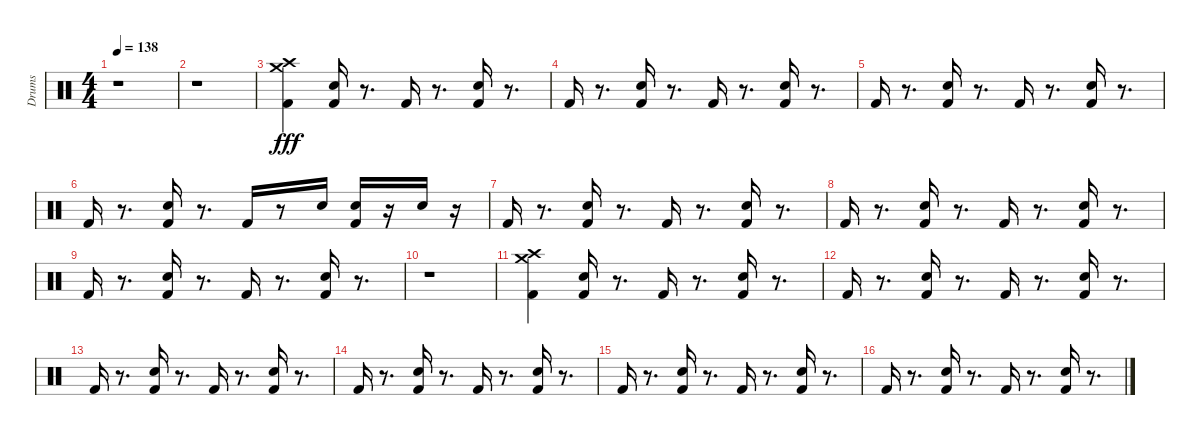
\track ("Drums" "Drums") {instrument percussion}
\staff {score}
\articulation defaults
\ts (4 4)
\tempo 138
\clef neutral
\ks c
r.1{dy fff} |
r.1 |
("Kick (hit) 2" "Crash medium (hit)" "Crash high (hit)").4 ("Kick (hit) 2" "Hand Clap (hit)").16 r.8{d} "Kick (hit) 2".16 r.8{d} ("Kick (hit) 2" "Hand Clap (hit)").16 r.8{d} |
"Kick (hit) 2".16 r.8{d} ("Kick (hit) 2" "Hand Clap (hit)").16 r.8{d} "Kick (hit) 2".16 r.8{d} ("Kick (hit) 2" "Hand Clap (hit)").16 r.8{d} |
"Kick (hit) 2".16 r.8{d} ("Kick (hit) 2" "Hand Clap (hit)").16 r.8{d} "Kick (hit) 2".16 r.8{d} ("Kick (hit) 2" "Hand Clap (hit)").16 r.8{d} |
"Kick (hit) 2".16 r.8{d} ("Kick (hit) 2" "Hand Clap (hit)").16 r.8{d} "Kick (hit) 2".16 r.8 "Hand Clap (hit)".16 ("Kick (hit) 2" "Hand Clap (hit)").16 r.16 "Hand Clap (hit)".16 r.16 |
"Kick (hit) 2".16 r.8{d} ("Kick (hit) 2" "Hand Clap (hit)").16 r.8{d} "Kick (hit) 2".16 r.8{d} ("Kick (hit) 2" "Hand Clap (hit)").16 r.8{d} |
"Kick (hit) 2".16 r.8{d} ("Kick (hit) 2" "Hand Clap (hit)").16 r.8{d} "Kick (hit) 2".16 r.8{d} ("Kick (hit) 2" "Hand Clap (hit)").16 r.8{d} |
"Kick (hit) 2".16 r.8{d} ("Kick (hit) 2" "Hand Clap (hit)").16 r.8{d} "Kick (hit) 2".16 r.8{d} ("Kick (hit) 2" "Hand Clap (hit)").16 r.8{d} |
r.1 |
("Kick (hit) 2" "Crash medium (hit)" "Crash high (hit)").4 ("Kick (hit) 2" "Hand Clap (hit)").16 r.8{d} "Kick (hit) 2".16 r.8{d} ("Kick (hit) 2" "Hand Clap (hit)").16 r.8{d} |
"Kick (hit) 2".16 r.8{d} ("Kick (hit) 2" "Hand Clap (hit)").16 r.8{d} "Kick (hit) 2".16 r.8{d} ("Kick (hit) 2" "Hand Clap (hit)").16 r.8{d} |
"Kick (hit) 2".16 r.8{d} ("Kick (hit) 2" "Hand Clap (hit)").16 r.8{d} "Kick (hit) 2".16 r.8{d} ("Kick (hit) 2" "Hand Clap (hit)").16 r.8{d} |
"Kick (hit) 2".16 r.8{d} ("Kick (hit) 2" "Hand Clap (hit)").16 r.8{d} "Kick (hit) 2".16 r.8{d} ("Kick (hit) 2" "Hand Clap (hit)").16 r.8{d} |
"Kick (hit) 2".16 r.8{d} ("Kick (hit) 2" "Hand Clap (hit)").16 r.8{d} "Kick (hit) 2".16 r.8{d} ("Kick (hit) 2" "Hand Clap (hit)").16 r.8{d} |
"Kick (hit) 2".16 r.8{d} ("Kick (hit) 2" "Hand Clap (hit)").16 r.8{d} "Kick (hit) 2".16 r.8{d} ("Kick (hit) 2" "Hand Clap (hit)").16 r.8{d}
